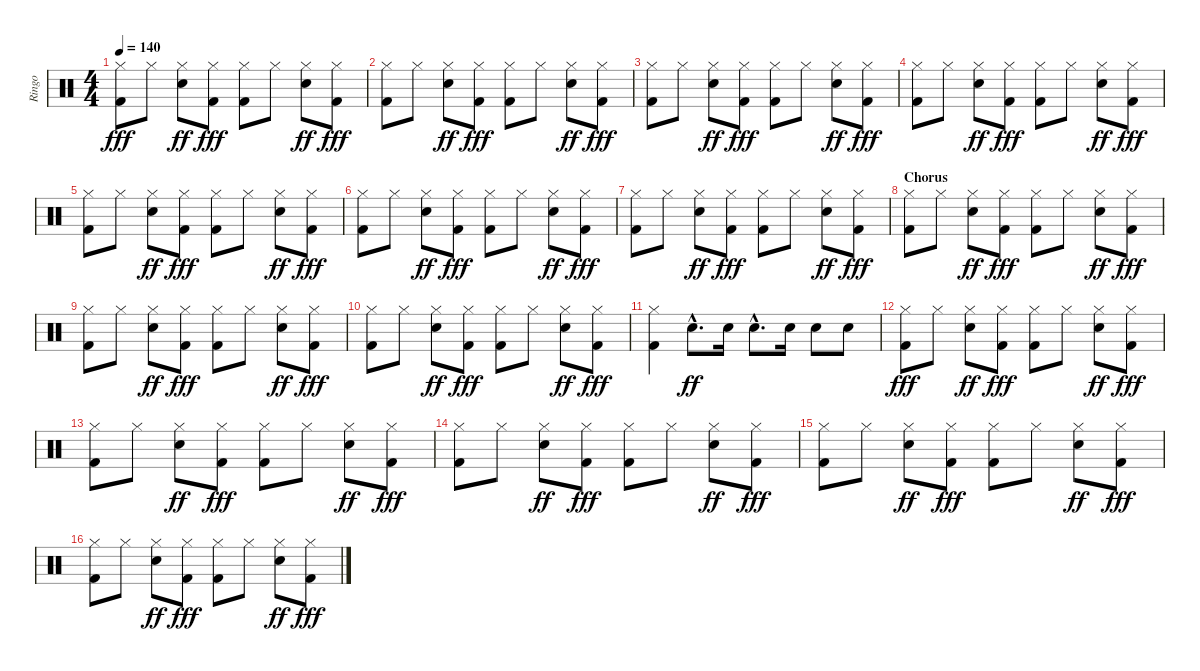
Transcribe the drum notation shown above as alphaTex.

\track ("Ringo" "Ringo") {instrument percussion}
\staff {score}
\articulation defaults
\ts (4 4)
\tempo 140
\clef neutral
\ks c
("Hi-Hat (closed)" "Kick (hit) 2").8{dy fff} "Hi-Hat (closed)".8 ("Hi-Hat (closed)" "Snare (hit) 2").8{dy ff} ("Hi-Hat (closed)" "Kick (hit) 2").8{dy fff} ("Hi-Hat (closed)" "Kick (hit) 2").8 "Hi-Hat (closed)".8 ("Hi-Hat (closed)" "Snare (hit) 2").8{dy ff} ("Hi-Hat (closed)" "Kick (hit) 2").8{dy fff} |
("Hi-Hat (closed)" "Kick (hit) 2").8 "Hi-Hat (closed)".8 ("Hi-Hat (closed)" "Snare (hit) 2").8{dy ff} ("Hi-Hat (closed)" "Kick (hit) 2").8{dy fff} ("Hi-Hat (closed)" "Kick (hit) 2").8 "Hi-Hat (closed)".8 ("Hi-Hat (closed)" "Snare (hit) 2").8{dy ff} ("Hi-Hat (closed)" "Kick (hit) 2").8{dy fff} |
("Hi-Hat (closed)" "Kick (hit) 2").8 "Hi-Hat (closed)".8 ("Hi-Hat (closed)" "Snare (hit) 2").8{dy ff} ("Hi-Hat (closed)" "Kick (hit) 2").8{dy fff} ("Hi-Hat (closed)" "Kick (hit) 2").8 "Hi-Hat (closed)".8 ("Hi-Hat (closed)" "Snare (hit) 2").8{dy ff} ("Hi-Hat (closed)" "Kick (hit) 2").8{dy fff} |
("Hi-Hat (closed)" "Kick (hit) 2").8 "Hi-Hat (closed)".8 ("Hi-Hat (closed)" "Snare (hit) 2").8{dy ff} ("Hi-Hat (closed)" "Kick (hit) 2").8{dy fff} ("Hi-Hat (closed)" "Kick (hit) 2").8 "Hi-Hat (closed)".8 ("Hi-Hat (closed)" "Snare (hit) 2").8{dy ff} ("Hi-Hat (closed)" "Kick (hit) 2").8{dy fff} |
("Hi-Hat (closed)" "Kick (hit) 2").8 "Hi-Hat (closed)".8 ("Hi-Hat (closed)" "Snare (hit) 2").8{dy ff} ("Hi-Hat (closed)" "Kick (hit) 2").8{dy fff} ("Hi-Hat (closed)" "Kick (hit) 2").8 "Hi-Hat (closed)".8 ("Hi-Hat (closed)" "Snare (hit) 2").8{dy ff} ("Hi-Hat (closed)" "Kick (hit) 2").8{dy fff} |
("Hi-Hat (closed)" "Kick (hit) 2").8 "Hi-Hat (closed)".8 ("Hi-Hat (closed)" "Snare (hit) 2").8{dy ff} ("Hi-Hat (closed)" "Kick (hit) 2").8{dy fff} ("Hi-Hat (closed)" "Kick (hit) 2").8 "Hi-Hat (closed)".8 ("Hi-Hat (closed)" "Snare (hit) 2").8{dy ff} ("Hi-Hat (closed)" "Kick (hit) 2").8{dy fff} |
("Hi-Hat (closed)" "Kick (hit) 2").8 "Hi-Hat (closed)".8 ("Hi-Hat (closed)" "Snare (hit) 2").8{dy ff} ("Hi-Hat (closed)" "Kick (hit) 2").8{dy fff} ("Hi-Hat (closed)" "Kick (hit) 2").8 "Hi-Hat (closed)".8 ("Hi-Hat (closed)" "Snare (hit) 2").8{dy ff} ("Hi-Hat (closed)" "Kick (hit) 2").8{dy fff} |
\section ("" "Chorus")
("Hi-Hat (closed)" "Kick (hit) 2").8 "Hi-Hat (closed)".8 ("Hi-Hat (closed)" "Snare (hit) 2").8{dy ff} ("Hi-Hat (closed)" "Kick (hit) 2").8{dy fff} ("Hi-Hat (closed)" "Kick (hit) 2").8 "Hi-Hat (closed)".8 ("Hi-Hat (closed)" "Snare (hit) 2").8{dy ff} ("Hi-Hat (closed)" "Kick (hit) 2").8{dy fff} |
("Hi-Hat (closed)" "Kick (hit) 2").8 "Hi-Hat (closed)".8 ("Hi-Hat (closed)" "Snare (hit) 2").8{dy ff} ("Hi-Hat (closed)" "Kick (hit) 2").8{dy fff} ("Hi-Hat (closed)" "Kick (hit) 2").8 "Hi-Hat (closed)".8 ("Hi-Hat (closed)" "Snare (hit) 2").8{dy ff} ("Hi-Hat (closed)" "Kick (hit) 2").8{dy fff} |
("Hi-Hat (closed)" "Kick (hit) 2").8 "Hi-Hat (closed)".8 ("Hi-Hat (closed)" "Snare (hit) 2").8{dy ff} ("Hi-Hat (closed)" "Kick (hit) 2").8{dy fff} ("Hi-Hat (closed)" "Kick (hit) 2").8 "Hi-Hat (closed)".8 ("Hi-Hat (closed)" "Snare (hit) 2").8{dy ff} ("Hi-Hat (closed)" "Kick (hit) 2").8{dy fff} |
("Hi-Hat (closed)" "Kick (hit) 2").4 "Snare (hit) 2"{hac}.8{d dy ff} "Snare (hit) 2".16 "Snare (hit) 2"{hac}.8{d} "Snare (hit) 2".16 "Snare (hit) 2".8 "Snare (hit) 2".8 |
("Hi-Hat (closed)" "Kick (hit) 2").8{dy fff} "Hi-Hat (closed)".8 ("Hi-Hat (closed)" "Snare (hit) 2").8{dy ff} ("Hi-Hat (closed)" "Kick (hit) 2").8{dy fff} ("Hi-Hat (closed)" "Kick (hit) 2").8 "Hi-Hat (closed)".8 ("Hi-Hat (closed)" "Snare (hit) 2").8{dy ff} ("Hi-Hat (closed)" "Kick (hit) 2").8{dy fff} |
("Hi-Hat (closed)" "Kick (hit) 2").8 "Hi-Hat (closed)".8 ("Hi-Hat (closed)" "Snare (hit) 2").8{dy ff} ("Hi-Hat (closed)" "Kick (hit) 2").8{dy fff} ("Hi-Hat (closed)" "Kick (hit) 2").8 "Hi-Hat (closed)".8 ("Hi-Hat (closed)" "Snare (hit) 2").8{dy ff} ("Hi-Hat (closed)" "Kick (hit) 2").8{dy fff} |
("Hi-Hat (closed)" "Kick (hit) 2").8 "Hi-Hat (closed)".8 ("Hi-Hat (closed)" "Snare (hit) 2").8{dy ff} ("Hi-Hat (closed)" "Kick (hit) 2").8{dy fff} ("Hi-Hat (closed)" "Kick (hit) 2").8 "Hi-Hat (closed)".8 ("Hi-Hat (closed)" "Snare (hit) 2").8{dy ff} ("Hi-Hat (closed)" "Kick (hit) 2").8{dy fff} |
("Hi-Hat (closed)" "Kick (hit) 2").8 "Hi-Hat (closed)".8 ("Hi-Hat (closed)" "Snare (hit) 2").8{dy ff} ("Hi-Hat (closed)" "Kick (hit) 2").8{dy fff} ("Hi-Hat (closed)" "Kick (hit) 2").8 "Hi-Hat (closed)".8 ("Hi-Hat (closed)" "Snare (hit) 2").8{dy ff} ("Hi-Hat (closed)" "Kick (hit) 2").8{dy fff} |
("Hi-Hat (closed)" "Kick (hit) 2").8 "Hi-Hat (closed)".8 ("Hi-Hat (closed)" "Snare (hit) 2").8{dy ff} ("Hi-Hat (closed)" "Kick (hit) 2").8{dy fff} ("Hi-Hat (closed)" "Kick (hit) 2").8 "Hi-Hat (closed)".8 ("Hi-Hat (closed)" "Snare (hit) 2").8{dy ff} ("Hi-Hat (closed)" "Kick (hit) 2").8{dy fff}
